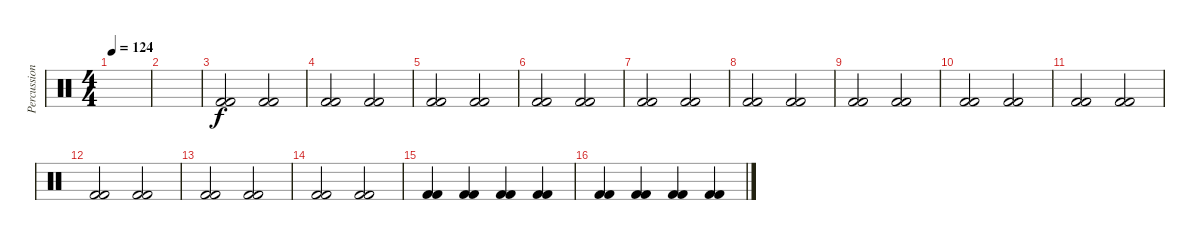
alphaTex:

\track ("Percussions" "Percussion") {instrument percussion}
\staff {score}
\articulation defaults
\ts (4 4)
\tempo 124
\clef neutral
\ks c
|
|
("Kick (hit) 2" "Kick (hit) 2").2 ("Kick (hit) 2" "Kick (hit) 2").2 |
("Kick (hit) 2" "Kick (hit) 2").2 ("Kick (hit) 2" "Kick (hit) 2").2 |
("Kick (hit) 2" "Kick (hit) 2").2 ("Kick (hit) 2" "Kick (hit) 2").2 |
("Kick (hit) 2" "Kick (hit) 2").2 ("Kick (hit) 2" "Kick (hit) 2").2 |
("Kick (hit) 2" "Kick (hit) 2").2 ("Kick (hit) 2" "Kick (hit) 2").2 |
("Kick (hit) 2" "Kick (hit) 2").2 ("Kick (hit) 2" "Kick (hit) 2").2 |
("Kick (hit) 2" "Kick (hit) 2").2 ("Kick (hit) 2" "Kick (hit) 2").2 |
("Kick (hit) 2" "Kick (hit) 2").2 ("Kick (hit) 2" "Kick (hit) 2").2 |
("Kick (hit) 2" "Kick (hit) 2").2 ("Kick (hit) 2" "Kick (hit) 2").2 |
("Kick (hit) 2" "Kick (hit) 2").2 ("Kick (hit) 2" "Kick (hit) 2").2 |
("Kick (hit) 2" "Kick (hit) 2").2 ("Kick (hit) 2" "Kick (hit) 2").2 |
("Kick (hit) 2" "Kick (hit) 2").2 ("Kick (hit) 2" "Kick (hit) 2").2 |
("Kick (hit) 2" "Kick (hit) 2").4 ("Kick (hit) 2" "Kick (hit) 2").4 ("Kick (hit) 2" "Kick (hit) 2").4 ("Kick (hit) 2" "Kick (hit) 2").4 |
("Kick (hit) 2" "Kick (hit) 2").4 ("Kick (hit) 2" "Kick (hit) 2").4 ("Kick (hit) 2" "Kick (hit) 2").4 ("Kick (hit) 2" "Kick (hit) 2").4
